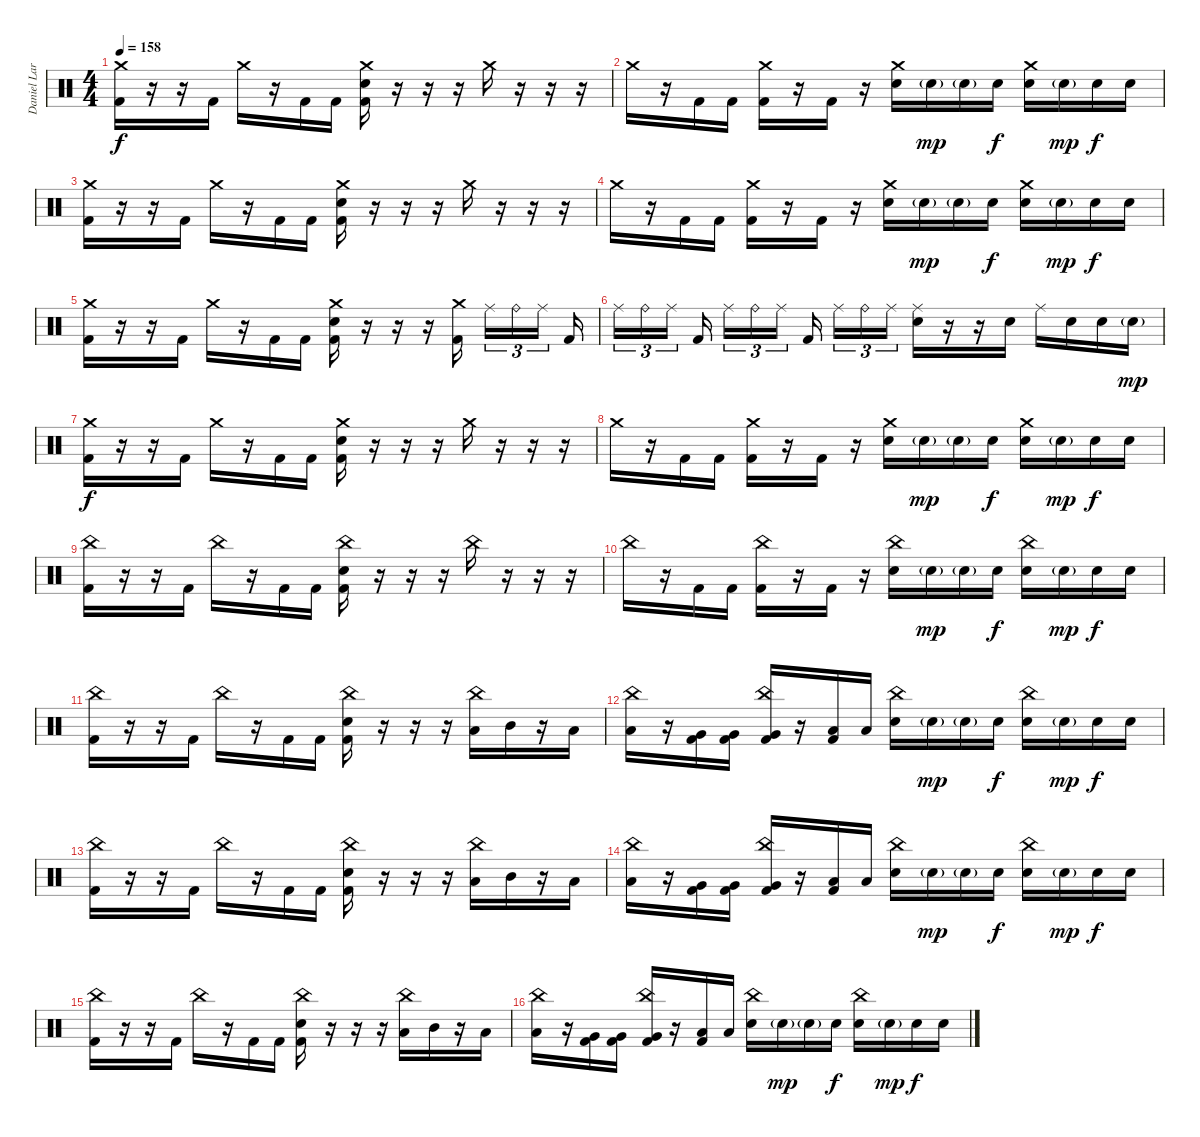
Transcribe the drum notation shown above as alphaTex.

\track ("Daniel Larsen" "Daniel Lar") {instrument percussion}
\staff {score}
\articulation defaults
\ts (4 4)
\tempo 158
\clef neutral
\ks c
("Crash medium (hit)" "Kick (hit) 2").16{dy f} r.16 r.16 "Kick (hit) 2".16 "Crash medium (hit)".16 r.16 "Kick (hit) 2".16 "Kick (hit) 2".16 ("Crash medium (hit)" "Electric Snare (hit)" "Kick (hit) 2").16 r.16 r.16 r.16 "Crash medium (hit)".16 r.16 r.16 r.16 |
"Crash medium (hit)".16 r.16 "Kick (hit) 2".16 "Kick (hit) 2".16 ("Crash medium (hit)" "Kick (hit) 2").16 r.16 "Kick (hit) 2".16 r.16 ("Crash medium (hit)" "Electric Snare (hit)").16 "Electric Snare (hit)"{g}.16{dy mp} "Electric Snare (hit)"{g}.16 "Electric Snare (hit)".16{dy f} ("Crash medium (hit)" "Electric Snare (hit)").16 "Electric Snare (hit)"{g}.16{dy mp} "Electric Snare (hit)".16{dy f} "Electric Snare (hit)".16 |
("Crash medium (hit)" "Kick (hit) 2").16 r.16 r.16 "Kick (hit) 2".16 "Crash medium (hit)".16 r.16 "Kick (hit) 2".16 "Kick (hit) 2".16 ("Crash medium (hit)" "Electric Snare (hit)" "Kick (hit) 2").16 r.16 r.16 r.16 "Crash medium (hit)".16 r.16 r.16 r.16 |
"Crash medium (hit)".16 r.16 "Kick (hit) 2".16 "Kick (hit) 2".16 ("Crash medium (hit)" "Kick (hit) 2").16 r.16 "Kick (hit) 2".16 r.16 ("Crash medium (hit)" "Electric Snare (hit)").16 "Electric Snare (hit)"{g}.16{dy mp} "Electric Snare (hit)"{g}.16 "Electric Snare (hit)".16{dy f} ("Crash medium (hit)" "Electric Snare (hit)").16 "Electric Snare (hit)"{g}.16{dy mp} "Electric Snare (hit)".16{dy f} "Electric Snare (hit)".16 |
("Crash medium (hit)" "Kick (hit) 2").16 r.16 r.16 "Kick (hit) 2".16 "Crash medium (hit)".16 r.16 "Kick (hit) 2".16 "Kick (hit) 2".16 ("Crash medium (hit)" "Electric Snare (hit)" "Kick (hit) 2").16 r.16 r.16 r.16 ("Crash medium (hit)" "Kick (hit) 2").16{beam splitsecondary} "Ride (middle)".16{tu (3 2)} "Ride (bell)".16{tu (3 2)} "Ride (middle)".16{tu (3 2) beam splitsecondary} "Kick (hit) 2".16 |
"Ride (middle)".16{tu (3 2)} "Ride (bell)".16{tu (3 2)} "Ride (middle)".16{tu (3 2) beam splitsecondary} "Kick (hit) 2".16{beam splitsecondary} "Ride (middle)".16{tu (3 2)} "Ride (bell)".16{tu (3 2)} "Ride (middle)".16{tu (3 2) beam splitsecondary} "Kick (hit) 2".16{beam splitsecondary} "Ride (middle)".16{tu (3 2)} "Ride (bell)".16{tu (3 2)} "Ride (middle)".16{tu (3 2)} ("Ride (middle)" "Electric Snare (hit)").16 r.16 r.16 "Electric Snare (hit)".16 "Ride (middle)".16 "Electric Snare (hit)".16 "Electric Snare (hit)".16 "Electric Snare (hit)"{g}.16{dy mp} |
("Crash medium (hit)" "Kick (hit) 2").16{dy f} r.16 r.16 "Kick (hit) 2".16 "Crash medium (hit)".16 r.16 "Kick (hit) 2".16 "Kick (hit) 2".16 ("Crash medium (hit)" "Electric Snare (hit)" "Kick (hit) 2").16 r.16 r.16 r.16 "Crash medium (hit)".16 r.16 r.16 r.16 |
"Crash medium (hit)".16 r.16 "Kick (hit) 2".16 "Kick (hit) 2".16 ("Crash medium (hit)" "Kick (hit) 2").16 r.16 "Kick (hit) 2".16 r.16 ("Crash medium (hit)" "Electric Snare (hit)").16 "Electric Snare (hit)"{g}.16{dy mp} "Electric Snare (hit)"{g}.16 "Electric Snare (hit)".16{dy f} ("Crash medium (hit)" "Electric Snare (hit)").16 "Electric Snare (hit)"{g}.16{dy mp} "Electric Snare (hit)".16{dy f} "Electric Snare (hit)".16 |
("China (hit)" "Kick (hit) 2").16 r.16 r.16 "Kick (hit) 2".16 "China (hit)".16 r.16 "Kick (hit) 2".16 "Kick (hit) 2".16 ("China (hit)" "Electric Snare (hit)" "Kick (hit) 2").16 r.16 r.16 r.16 "China (hit)".16 r.16 r.16 r.16 |
"China (hit)".16 r.16 "Kick (hit) 2".16 "Kick (hit) 2".16 ("China (hit)" "Kick (hit) 2").16 r.16 "Kick (hit) 2".16 r.16 ("China (hit)" "Electric Snare (hit)").16 "Electric Snare (hit)"{g}.16{dy mp} "Electric Snare (hit)"{g}.16 "Electric Snare (hit)".16{dy f} ("China (hit)" "Electric Snare (hit)").16 "Electric Snare (hit)"{g}.16{dy mp} "Electric Snare (hit)".16{dy f} "Electric Snare (hit)".16 |
("China (hit)" "Kick (hit) 2").16 r.16 r.16 "Kick (hit) 2".16 "China (hit)".16 r.16 "Kick (hit) 2".16 "Kick (hit) 2".16 ("China (hit)" "Electric Snare (hit)" "Kick (hit) 2").16 r.16 r.16 r.16 ("China (hit)" "Low Tom (hit)").16 "Mid Tom (hit)".16 r.16 "Low Tom (hit)".16 |
("China (hit)" "Low Tom (hit)").16 r.16 ("Very Low Tom (hit)" "Kick (hit) 2").16 ("Very Low Tom (hit)" "Kick (hit) 2").16 ("China (hit)" "Very Low Tom (hit)" "Kick (hit) 2").16 r.16 ("Low Floor Tom (hit)" "Kick (hit) 2").16 "Low Floor Tom (hit)".16 ("China (hit)" "Electric Snare (hit)").16 "Electric Snare (hit)"{g}.16{dy mp} "Electric Snare (hit)"{g}.16 "Electric Snare (hit)".16{dy f} ("China (hit)" "Electric Snare (hit)").16 "Electric Snare (hit)"{g}.16{dy mp} "Electric Snare (hit)".16{dy f} "Electric Snare (hit)".16 |
("China (hit)" "Kick (hit) 2").16 r.16 r.16 "Kick (hit) 2".16 "China (hit)".16 r.16 "Kick (hit) 2".16 "Kick (hit) 2".16 ("China (hit)" "Electric Snare (hit)" "Kick (hit) 2").16 r.16 r.16 r.16 ("China (hit)" "Low Tom (hit)").16 "Mid Tom (hit)".16 r.16 "Low Tom (hit)".16 |
("China (hit)" "Low Tom (hit)").16 r.16 ("Very Low Tom (hit)" "Kick (hit) 2").16 ("Very Low Tom (hit)" "Kick (hit) 2").16 ("China (hit)" "Very Low Tom (hit)" "Kick (hit) 2").16 r.16 ("Low Floor Tom (hit)" "Kick (hit) 2").16 "Low Floor Tom (hit)".16 ("China (hit)" "Electric Snare (hit)").16 "Electric Snare (hit)"{g}.16{dy mp} "Electric Snare (hit)"{g}.16 "Electric Snare (hit)".16{dy f} ("China (hit)" "Electric Snare (hit)").16 "Electric Snare (hit)"{g}.16{dy mp} "Electric Snare (hit)".16{dy f} "Electric Snare (hit)".16 |
("China (hit)" "Kick (hit) 2").16 r.16 r.16 "Kick (hit) 2".16 "China (hit)".16 r.16 "Kick (hit) 2".16 "Kick (hit) 2".16 ("China (hit)" "Electric Snare (hit)" "Kick (hit) 2").16 r.16 r.16 r.16 ("China (hit)" "Low Tom (hit)").16 "Mid Tom (hit)".16 r.16 "Low Tom (hit)".16 |
("China (hit)" "Low Tom (hit)").16 r.16 ("Very Low Tom (hit)" "Kick (hit) 2").16 ("Very Low Tom (hit)" "Kick (hit) 2").16 ("China (hit)" "Very Low Tom (hit)" "Kick (hit) 2").16 r.16 ("Low Floor Tom (hit)" "Kick (hit) 2").16 "Low Floor Tom (hit)".16 ("China (hit)" "Electric Snare (hit)").16 "Electric Snare (hit)"{g}.16{dy mp} "Electric Snare (hit)"{g}.16 "Electric Snare (hit)".16{dy f} ("China (hit)" "Electric Snare (hit)").16 "Electric Snare (hit)"{g}.16{dy mp} "Electric Snare (hit)".16{dy f} "Electric Snare (hit)".16
